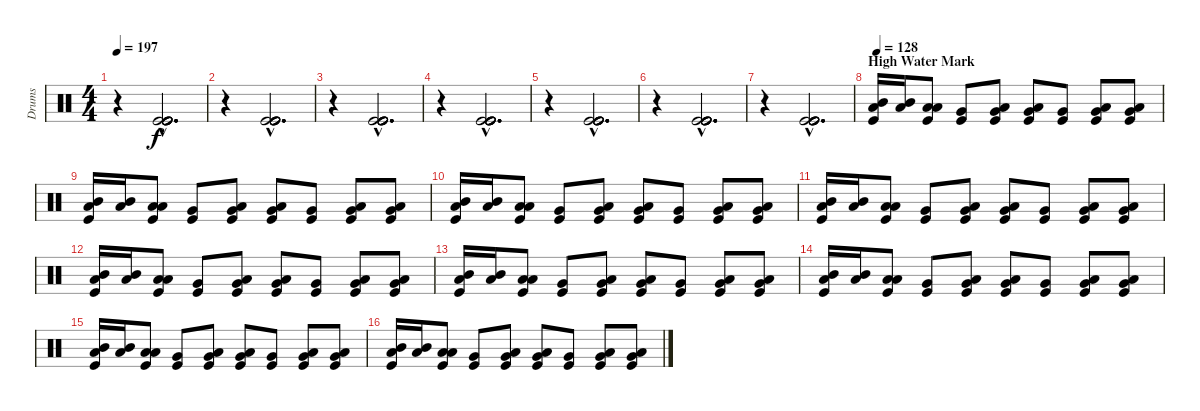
\track ("Drums" "Drums") {instrument percussion}
\staff {score}
\articulation defaults
\ts (4 4)
\tempo 197
\clef neutral
\ks c
r.4{dy f} ("Kick (hit)"{hac} "Kick (hit)"{hac} "Kick (hit)"{hac} "Kick (hit)"{hac} "Kick (hit)"{hac} "Kick (hit)"{hac}).2{d} |
r.4 ("Kick (hit)"{hac} "Kick (hit)"{hac} "Kick (hit)"{hac} "Kick (hit)"{hac} "Kick (hit)"{hac} "Kick (hit)"{hac}).2{d} |
r.4 ("Kick (hit)"{hac} "Kick (hit)"{hac} "Kick (hit)"{hac} "Kick (hit)"{hac} "Kick (hit)"{hac} "Kick (hit)"{hac}).2{d} |
r.4 ("Kick (hit)"{hac} "Kick (hit)"{hac} "Kick (hit)"{hac} "Kick (hit)"{hac} "Kick (hit)"{hac} "Kick (hit)"{hac}).2{d} |
r.4 ("Kick (hit)"{hac} "Kick (hit)"{hac} "Kick (hit)"{hac} "Kick (hit)"{hac} "Kick (hit)"{hac} "Kick (hit)"{hac}).2{d} |
r.4 ("Kick (hit)"{hac} "Kick (hit)"{hac} "Kick (hit)"{hac} "Kick (hit)"{hac} "Kick (hit)"{hac} "Kick (hit)"{hac}).2{d} |
r.4 ("Kick (hit)"{hac} "Kick (hit)"{hac} "Kick (hit)"{hac} "Kick (hit)"{hac} "Kick (hit)"{hac} "Kick (hit)"{hac}).2{d} |
\section ("" "High Water Mark")
\tempo 128
("Mid Tom (hit)" "Low Tom (hit)" "Kick (hit)").16 ("Mid Tom (hit)" "Low Tom (hit)").16 ("Low Tom (hit)" "Low Tom (hit)" "Kick (hit)").8 ("Very Low Tom (hit)" "Kick (hit)").8 ("Low Tom (hit)" "Very Low Tom (hit)" "Kick (hit)").8 ("Low Tom (hit)" "Very Low Tom (hit)" "Kick (hit)").8 ("Very Low Tom (hit)" "Kick (hit)").8 ("Low Tom (hit)" "Very Low Tom (hit)" "Kick (hit)").8 ("Low Tom (hit)" "Very Low Tom (hit)" "Kick (hit)").8 |
("Mid Tom (hit)" "Low Tom (hit)" "Kick (hit)").16 ("Mid Tom (hit)" "Low Tom (hit)").16 ("Low Tom (hit)" "Low Tom (hit)" "Kick (hit)").8 ("Very Low Tom (hit)" "Kick (hit)").8 ("Low Tom (hit)" "Very Low Tom (hit)" "Kick (hit)").8 ("Low Tom (hit)" "Very Low Tom (hit)" "Kick (hit)").8 ("Very Low Tom (hit)" "Kick (hit)").8 ("Low Tom (hit)" "Very Low Tom (hit)" "Kick (hit)").8 ("Low Tom (hit)" "Very Low Tom (hit)" "Kick (hit)").8 |
("Mid Tom (hit)" "Low Tom (hit)" "Kick (hit)").16 ("Mid Tom (hit)" "Low Tom (hit)").16 ("Low Tom (hit)" "Low Tom (hit)" "Kick (hit)").8 ("Very Low Tom (hit)" "Kick (hit)").8 ("Low Tom (hit)" "Very Low Tom (hit)" "Kick (hit)").8 ("Low Tom (hit)" "Very Low Tom (hit)" "Kick (hit)").8 ("Very Low Tom (hit)" "Kick (hit)").8 ("Low Tom (hit)" "Very Low Tom (hit)" "Kick (hit)").8 ("Low Tom (hit)" "Very Low Tom (hit)" "Kick (hit)").8 |
("Mid Tom (hit)" "Low Tom (hit)" "Kick (hit)").16 ("Mid Tom (hit)" "Low Tom (hit)").16 ("Low Tom (hit)" "Low Tom (hit)" "Kick (hit)").8 ("Very Low Tom (hit)" "Kick (hit)").8 ("Low Tom (hit)" "Very Low Tom (hit)" "Kick (hit)").8 ("Low Tom (hit)" "Very Low Tom (hit)" "Kick (hit)").8 ("Very Low Tom (hit)" "Kick (hit)").8 ("Low Tom (hit)" "Very Low Tom (hit)" "Kick (hit)").8 ("Low Tom (hit)" "Very Low Tom (hit)" "Kick (hit)").8 |
("Mid Tom (hit)" "Low Tom (hit)" "Kick (hit)").16 ("Mid Tom (hit)" "Low Tom (hit)").16 ("Low Tom (hit)" "Low Tom (hit)" "Kick (hit)").8 ("Very Low Tom (hit)" "Kick (hit)").8 ("Low Tom (hit)" "Very Low Tom (hit)" "Kick (hit)").8 ("Low Tom (hit)" "Very Low Tom (hit)" "Kick (hit)").8 ("Very Low Tom (hit)" "Kick (hit)").8 ("Low Tom (hit)" "Very Low Tom (hit)" "Kick (hit)").8 ("Low Tom (hit)" "Very Low Tom (hit)" "Kick (hit)").8 |
("Mid Tom (hit)" "Low Tom (hit)" "Kick (hit)").16 ("Mid Tom (hit)" "Low Tom (hit)").16 ("Low Tom (hit)" "Low Tom (hit)" "Kick (hit)").8 ("Very Low Tom (hit)" "Kick (hit)").8 ("Low Tom (hit)" "Very Low Tom (hit)" "Kick (hit)").8 ("Low Tom (hit)" "Very Low Tom (hit)" "Kick (hit)").8 ("Very Low Tom (hit)" "Kick (hit)").8 ("Low Tom (hit)" "Very Low Tom (hit)" "Kick (hit)").8 ("Low Tom (hit)" "Very Low Tom (hit)" "Kick (hit)").8 |
("Mid Tom (hit)" "Low Tom (hit)" "Kick (hit)").16 ("Mid Tom (hit)" "Low Tom (hit)").16 ("Low Tom (hit)" "Low Tom (hit)" "Kick (hit)").8 ("Very Low Tom (hit)" "Kick (hit)").8 ("Low Tom (hit)" "Very Low Tom (hit)" "Kick (hit)").8 ("Low Tom (hit)" "Very Low Tom (hit)" "Kick (hit)").8 ("Very Low Tom (hit)" "Kick (hit)").8 ("Low Tom (hit)" "Very Low Tom (hit)" "Kick (hit)").8 ("Low Tom (hit)" "Very Low Tom (hit)" "Kick (hit)").8 |
("Mid Tom (hit)" "Low Tom (hit)" "Kick (hit)").16 ("Mid Tom (hit)" "Low Tom (hit)").16 ("Low Tom (hit)" "Low Tom (hit)" "Kick (hit)").8 ("Very Low Tom (hit)" "Kick (hit)").8 ("Low Tom (hit)" "Very Low Tom (hit)" "Kick (hit)").8 ("Low Tom (hit)" "Very Low Tom (hit)" "Kick (hit)").8 ("Very Low Tom (hit)" "Kick (hit)").8 ("Low Tom (hit)" "Very Low Tom (hit)" "Kick (hit)").8 ("Low Tom (hit)" "Very Low Tom (hit)" "Kick (hit)").8 |
("Mid Tom (hit)" "Low Tom (hit)" "Kick (hit)").16 ("Mid Tom (hit)" "Low Tom (hit)").16 ("Low Tom (hit)" "Low Tom (hit)" "Kick (hit)").8 ("Very Low Tom (hit)" "Kick (hit)").8 ("Low Tom (hit)" "Very Low Tom (hit)" "Kick (hit)").8 ("Low Tom (hit)" "Very Low Tom (hit)" "Kick (hit)").8 ("Very Low Tom (hit)" "Kick (hit)").8 ("Low Tom (hit)" "Very Low Tom (hit)" "Kick (hit)").8 ("Low Tom (hit)" "Very Low Tom (hit)" "Kick (hit)").8
